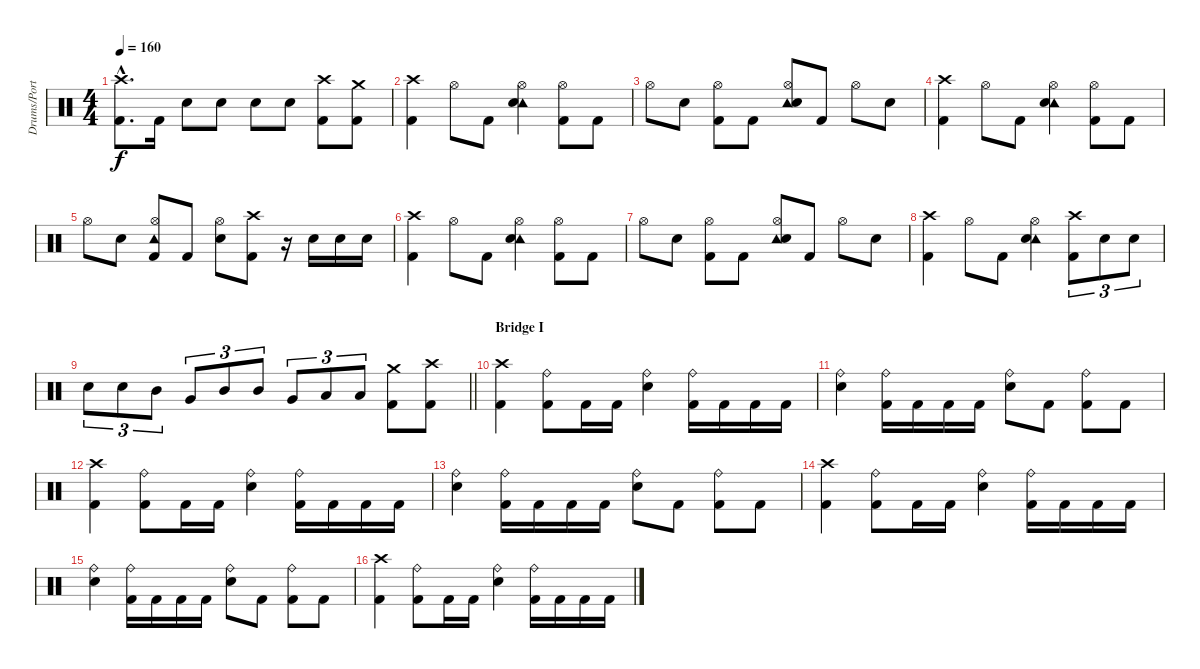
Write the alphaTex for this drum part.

\track ("Drums/Portnoy" "Drums/Port") {instrument percussion}
\staff {score}
\articulation defaults
\ts (4 4)
\tempo 160
\clef neutral
\ks c
("Crash high (hit)"{hac} "Kick (hit) 2"{hac}).8{d dy f} "Kick (hit) 2".16 "Electric Snare (hit)".8 "Electric Snare (hit)".8 "Electric Snare (hit)".8 "Electric Snare (hit)".8 ("Crash high (hit)" "Kick (hit) 2").8 ("Crash medium (hit)" "Kick (hit) 2").8 |
("Crash high (hit)" "Kick (hit) 2").4 "Hi-Hat (open)".8 "Kick (hit) 2".8 ("Tambourine (hit)" "Hi-Hat (open)" "Electric Snare (hit)").4 ("Hi-Hat (open)" "Kick (hit) 2").8 "Kick (hit) 2".8 |
"Hi-Hat (open)".8 "Electric Snare (hit)".8 ("Hi-Hat (open)" "Kick (hit) 2").8 "Kick (hit) 2".8 ("Tambourine (hit)" "Hi-Hat (open)" "Electric Snare (hit)").8 "Kick (hit) 2".8 "Hi-Hat (open)".8 "Electric Snare (hit)".8 |
("Crash high (hit)" "Kick (hit) 2").4 "Hi-Hat (open)".8 "Kick (hit) 2".8 ("Tambourine (hit)" "Hi-Hat (open)" "Electric Snare (hit)").4 ("Hi-Hat (open)" "Kick (hit) 2").8 "Kick (hit) 2".8 |
"Hi-Hat (open)".8 "Electric Snare (hit)".8 ("Tambourine (hit)" "Hi-Hat (open)" "Kick (hit) 2").8 "Kick (hit) 2".8 ("Hi-Hat (open)" "Electric Snare (hit)").8 ("Crash high (hit)" "Kick (hit) 2").8 r.16 "Electric Snare (hit)".16 "Electric Snare (hit)".16 "Electric Snare (hit)".16 |
("Crash high (hit)" "Kick (hit) 2").4 "Hi-Hat (open)".8 "Kick (hit) 2".8 ("Tambourine (hit)" "Hi-Hat (open)" "Electric Snare (hit)").4 ("Hi-Hat (open)" "Kick (hit) 2").8 "Kick (hit) 2".8 |
"Hi-Hat (open)".8 "Electric Snare (hit)".8 ("Hi-Hat (open)" "Kick (hit) 2").8 "Kick (hit) 2".8 ("Tambourine (hit)" "Hi-Hat (open)" "Electric Snare (hit)").8 "Kick (hit) 2".8 "Hi-Hat (open)".8 "Electric Snare (hit)".8 |
("Crash high (hit)" "Kick (hit) 2").4 "Hi-Hat (open)".8 "Kick (hit) 2".8 ("Tambourine (hit)" "Hi-Hat (open)" "Electric Snare (hit)").4 ("Crash high (hit)" "Kick (hit) 2").8{tu (3 2)} "Electric Snare (hit)".8{tu (3 2)} "Electric Snare (hit)".8{tu (3 2)} |
\barLineRight lightlight "Electric Snare (hit)".8{tu (3 2)} "Electric Snare (hit)".8{tu (3 2)} "Mid Tom (hit)".8{tu (3 2)} "Very Low Tom (hit)".8{tu (3 2)} "Mid Tom (hit)".8{tu (3 2)} "Mid Tom (hit)".8{tu (3 2)} "Very Low Tom (hit)".8{tu (3 2)} "Low Floor Tom (hit)".8{tu (3 2)} "Low Floor Tom (hit)".8{tu (3 2)}
("Crash medium (hit)" "Kick (hit) 2").8 ("Crash high (hit)" "Kick (hit) 2").8 |
\section ("" "Bridge I")
("Crash high (hit)" "Kick (hit) 2").4 ("Ride (bell)" "Kick (hit) 2").8 "Kick (hit) 2".16 "Kick (hit) 2".16 ("Ride (bell)" "Electric Snare (hit)").4 ("Ride (bell)" "Kick (hit) 2").16 "Kick (hit) 2".16 "Kick (hit) 2".16 "Kick (hit) 2".16 |
("Ride (bell)" "Electric Snare (hit)").4 ("Ride (bell)" "Kick (hit) 2").16 "Kick (hit) 2".16 "Kick (hit) 2".16 "Kick (hit) 2".16 ("Ride (bell)" "Electric Snare (hit)").8 "Kick (hit) 2".8 ("Ride (bell)" "Kick (hit) 2").8 "Kick (hit) 2".8 |
("Crash high (hit)" "Kick (hit) 2").4 ("Ride (bell)" "Kick (hit) 2").8 "Kick (hit) 2".16 "Kick (hit) 2".16 ("Ride (bell)" "Electric Snare (hit)").4 ("Ride (bell)" "Kick (hit) 2").16 "Kick (hit) 2".16 "Kick (hit) 2".16 "Kick (hit) 2".16 |
("Ride (bell)" "Electric Snare (hit)").4 ("Ride (bell)" "Kick (hit) 2").16 "Kick (hit) 2".16 "Kick (hit) 2".16 "Kick (hit) 2".16 ("Ride (bell)" "Electric Snare (hit)").8 "Kick (hit) 2".8 ("Ride (bell)" "Kick (hit) 2").8 "Kick (hit) 2".8 |
("Crash high (hit)" "Kick (hit) 2").4 ("Ride (bell)" "Kick (hit) 2").8 "Kick (hit) 2".16 "Kick (hit) 2".16 ("Ride (bell)" "Electric Snare (hit)").4 ("Ride (bell)" "Kick (hit) 2").16 "Kick (hit) 2".16 "Kick (hit) 2".16 "Kick (hit) 2".16 |
("Ride (bell)" "Electric Snare (hit)").4 ("Ride (bell)" "Kick (hit) 2").16 "Kick (hit) 2".16 "Kick (hit) 2".16 "Kick (hit) 2".16 ("Ride (bell)" "Electric Snare (hit)").8 "Kick (hit) 2".8 ("Ride (bell)" "Kick (hit) 2").8 "Kick (hit) 2".8 |
("Crash high (hit)" "Kick (hit) 2").4 ("Ride (bell)" "Kick (hit) 2").8 "Kick (hit) 2".16 "Kick (hit) 2".16 ("Ride (bell)" "Electric Snare (hit)").4 ("Ride (bell)" "Kick (hit) 2").16 "Kick (hit) 2".16 "Kick (hit) 2".16 "Kick (hit) 2".16
